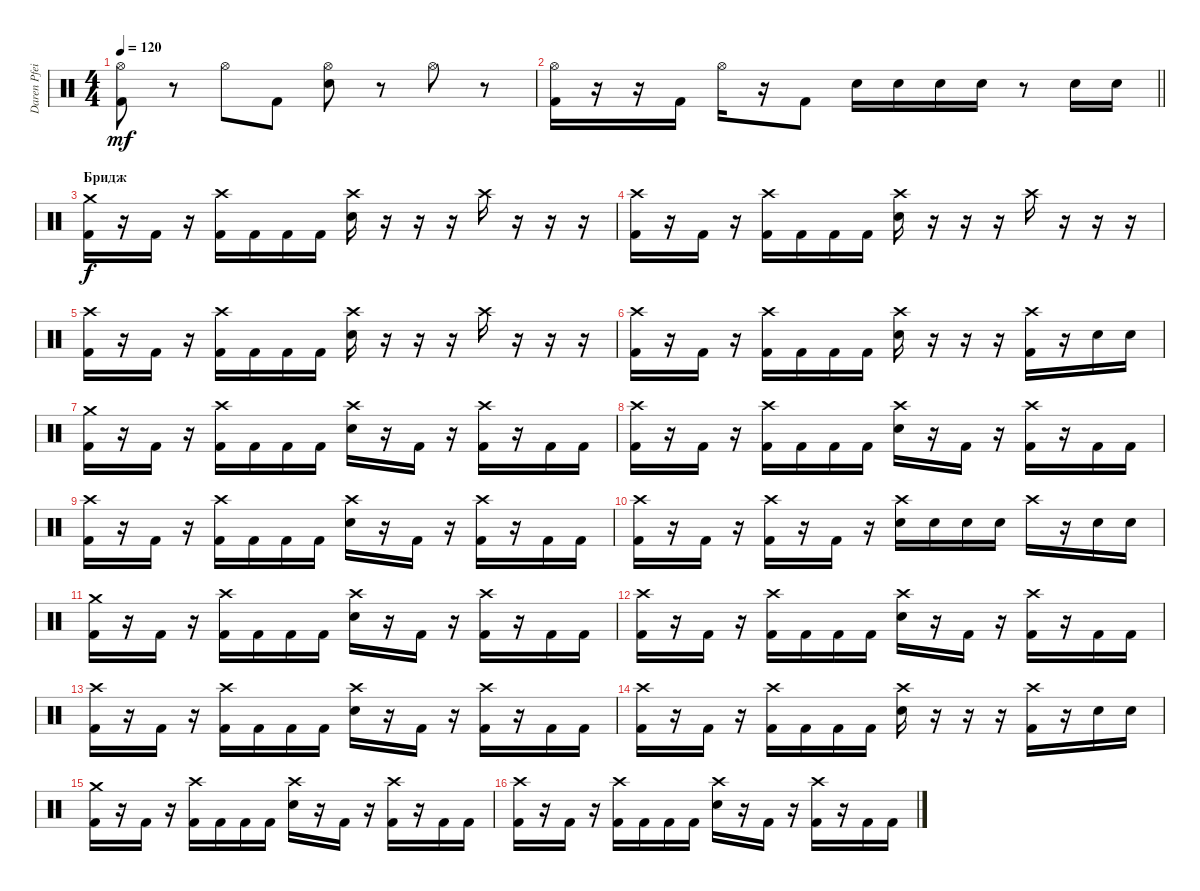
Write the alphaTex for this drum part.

\track ("Daren Pfeifer" "Daren Pfei") {instrument percussion}
\staff {score}
\articulation defaults
\ts (4 4)
\tempo 120
\clef neutral
\ks c
("Hi-Hat (open)" "Kick (hit) 2").8{dy mf} r.8 "Hi-Hat (open)".8 "Kick (hit) 2".8 ("Hi-Hat (open)" "Snare (hit) 2").8 r.8 "Hi-Hat (open)".8 r.8 |
\barLineRight lightlight
("Hi-Hat (open)" "Kick (hit) 2").16 r.16 r.16 "Kick (hit) 2".16 "Hi-Hat (open)".16 r.16 "Kick (hit) 2".8 "Snare (hit) 2".16 "Snare (hit) 2".16 "Snare (hit) 2".16 "Snare (hit) 2".16 r.8 "Snare (hit) 2".16 "Snare (hit) 2".16 |
\section ("" "Бридж")
("Crash medium (hit)" "Kick (hit) 2").16{dy f} r.16 "Kick (hit) 2".16 r.16 ("Crash high (hit)" "Kick (hit) 2").16 "Kick (hit) 2".16 "Kick (hit) 2".16 "Kick (hit) 2".16 ("Crash high (hit)" "Snare (hit) 2").16 r.16 r.16 r.16 "Crash high (hit)".16 r.16 r.16 r.16 |
("Crash high (hit)" "Kick (hit) 2").16 r.16 "Kick (hit) 2".16 r.16 ("Crash high (hit)" "Kick (hit) 2").16 "Kick (hit) 2".16 "Kick (hit) 2".16 "Kick (hit) 2".16 ("Crash high (hit)" "Snare (hit) 2").16 r.16 r.16 r.16 "Crash high (hit)".16 r.16 r.16 r.16 |
("Crash high (hit)" "Kick (hit) 2").16 r.16 "Kick (hit) 2".16 r.16 ("Crash high (hit)" "Kick (hit) 2").16 "Kick (hit) 2".16 "Kick (hit) 2".16 "Kick (hit) 2".16 ("Crash high (hit)" "Snare (hit) 2").16 r.16 r.16 r.16 "Crash high (hit)".16 r.16 r.16 r.16 |
("Crash high (hit)" "Kick (hit) 2").16 r.16 "Kick (hit) 2".16 r.16 ("Crash high (hit)" "Kick (hit) 2").16 "Kick (hit) 2".16 "Kick (hit) 2".16 "Kick (hit) 2".16 ("Crash high (hit)" "Snare (hit) 2").16 r.16 r.16 r.16 ("Crash high (hit)" "Kick (hit) 2").16 r.16 "Snare (hit) 2".16 "Snare (hit) 2".16 |
("Crash medium (hit)" "Kick (hit) 2").16 r.16 "Kick (hit) 2".16 r.16 ("Crash high (hit)" "Kick (hit) 2").16 "Kick (hit) 2".16 "Kick (hit) 2".16 "Kick (hit) 2".16 ("Crash high (hit)" "Snare (hit) 2").16 r.16 "Kick (hit) 2".16 r.16 ("Crash high (hit)" "Kick (hit) 2").16 r.16 "Kick (hit) 2".16 "Kick (hit) 2".16 |
("Crash high (hit)" "Kick (hit) 2").16 r.16 "Kick (hit) 2".16 r.16 ("Crash high (hit)" "Kick (hit) 2").16 "Kick (hit) 2".16 "Kick (hit) 2".16 "Kick (hit) 2".16 ("Crash high (hit)" "Snare (hit) 2").16 r.16 "Kick (hit) 2".16 r.16 ("Crash high (hit)" "Kick (hit) 2").16 r.16 "Kick (hit) 2".16 "Kick (hit) 2".16 |
("Crash high (hit)" "Kick (hit) 2").16 r.16 "Kick (hit) 2".16 r.16 ("Crash high (hit)" "Kick (hit) 2").16 "Kick (hit) 2".16 "Kick (hit) 2".16 "Kick (hit) 2".16 ("Crash high (hit)" "Snare (hit) 2").16 r.16 "Kick (hit) 2".16 r.16 ("Crash high (hit)" "Kick (hit) 2").16 r.16 "Kick (hit) 2".16 "Kick (hit) 2".16 |
("Crash high (hit)" "Kick (hit) 2").16 r.16 "Kick (hit) 2".16 r.16 ("Crash high (hit)" "Kick (hit) 2").16 r.16 "Kick (hit) 2".16 r.16 ("Crash high (hit)" "Snare (hit) 2").16 "Snare (hit) 2".16 "Snare (hit) 2".16 "Snare (hit) 2".16 "Crash high (hit)".16 r.16 "Snare (hit) 2".16 "Snare (hit) 2".16 |
("Crash medium (hit)" "Kick (hit) 2").16 r.16 "Kick (hit) 2".16 r.16 ("Crash high (hit)" "Kick (hit) 2").16 "Kick (hit) 2".16 "Kick (hit) 2".16 "Kick (hit) 2".16 ("Crash high (hit)" "Snare (hit) 2").16 r.16 "Kick (hit) 2".16 r.16 ("Crash high (hit)" "Kick (hit) 2").16 r.16 "Kick (hit) 2".16 "Kick (hit) 2".16 |
("Crash high (hit)" "Kick (hit) 2").16 r.16 "Kick (hit) 2".16 r.16 ("Crash high (hit)" "Kick (hit) 2").16 "Kick (hit) 2".16 "Kick (hit) 2".16 "Kick (hit) 2".16 ("Crash high (hit)" "Snare (hit) 2").16 r.16 "Kick (hit) 2".16 r.16 ("Crash high (hit)" "Kick (hit) 2").16 r.16 "Kick (hit) 2".16 "Kick (hit) 2".16 |
("Crash high (hit)" "Kick (hit) 2").16 r.16 "Kick (hit) 2".16 r.16 ("Crash high (hit)" "Kick (hit) 2").16 "Kick (hit) 2".16 "Kick (hit) 2".16 "Kick (hit) 2".16 ("Crash high (hit)" "Snare (hit) 2").16 r.16 "Kick (hit) 2".16 r.16 ("Crash high (hit)" "Kick (hit) 2").16 r.16 "Kick (hit) 2".16 "Kick (hit) 2".16 |
("Crash high (hit)" "Kick (hit) 2").16 r.16 "Kick (hit) 2".16 r.16 ("Crash high (hit)" "Kick (hit) 2").16 "Kick (hit) 2".16 "Kick (hit) 2".16 "Kick (hit) 2".16 ("Crash high (hit)" "Snare (hit) 2").16 r.16 r.16 r.16 ("Crash high (hit)" "Kick (hit) 2").16 r.16 "Snare (hit) 2".16 "Snare (hit) 2".16 |
("Crash medium (hit)" "Kick (hit) 2").16 r.16 "Kick (hit) 2".16 r.16 ("Crash high (hit)" "Kick (hit) 2").16 "Kick (hit) 2".16 "Kick (hit) 2".16 "Kick (hit) 2".16 ("Crash high (hit)" "Snare (hit) 2").16 r.16 "Kick (hit) 2".16 r.16 ("Crash high (hit)" "Kick (hit) 2").16 r.16 "Kick (hit) 2".16 "Kick (hit) 2".16 |
("Crash high (hit)" "Kick (hit) 2").16 r.16 "Kick (hit) 2".16 r.16 ("Crash high (hit)" "Kick (hit) 2").16 "Kick (hit) 2".16 "Kick (hit) 2".16 "Kick (hit) 2".16 ("Crash high (hit)" "Snare (hit) 2").16 r.16 "Kick (hit) 2".16 r.16 ("Crash high (hit)" "Kick (hit) 2").16 r.16 "Kick (hit) 2".16 "Kick (hit) 2".16
